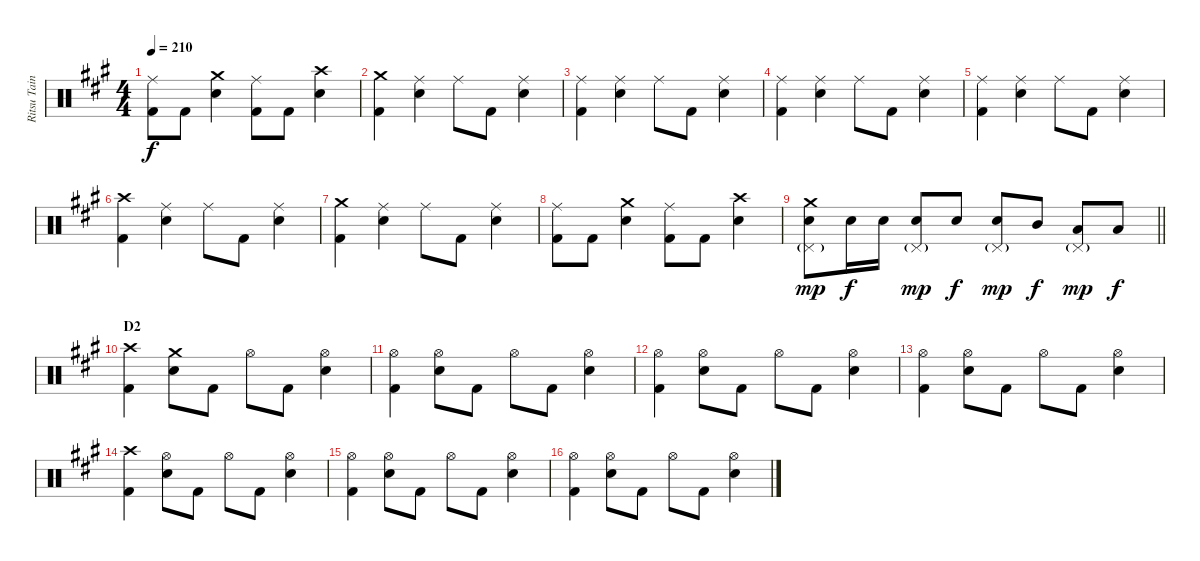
\track ("Ritsu Tainaka" "Ritsu Tain") {instrument percussion}
\staff {score}
\articulation defaults
\ts (4 4)
\tempo 210
\clef neutral
\ks a
("Ride (middle)" "Kick (hit) 2").8{dy f} "Kick (hit) 2".8 ("Crash medium (hit)" "Electric Snare (hit)").4 ("Ride (middle)" "Kick (hit) 2").8 "Kick (hit) 2".8 ("Crash high (hit)" "Electric Snare (hit)").4 |
("Crash medium (hit)" "Kick (hit) 2").4 ("Ride (middle)" "Electric Snare (hit)").4 "Ride (middle)".8 "Kick (hit) 2".8 ("Ride (middle)" "Electric Snare (hit)").4 |
("Ride (middle)" "Kick (hit) 2").4 ("Ride (middle)" "Electric Snare (hit)").4 "Ride (middle)".8 "Kick (hit) 2".8 ("Ride (middle)" "Electric Snare (hit)").4 |
("Ride (middle)" "Kick (hit) 2").4 ("Ride (middle)" "Electric Snare (hit)").4 "Ride (middle)".8 "Kick (hit) 2".8 ("Ride (middle)" "Electric Snare (hit)").4 |
("Ride (middle)" "Kick (hit) 2").4 ("Ride (middle)" "Electric Snare (hit)").4 "Ride (middle)".8 "Kick (hit) 2".8 ("Ride (middle)" "Electric Snare (hit)").4 |
("Crash high (hit)" "Kick (hit) 2").4 ("Ride (middle)" "Electric Snare (hit)").4 "Ride (middle)".8 "Kick (hit) 2".8 ("Ride (middle)" "Electric Snare (hit)").4 |
("Crash medium (hit)" "Kick (hit) 2").4 ("Ride (middle)" "Electric Snare (hit)").4 "Ride (middle)".8 "Kick (hit) 2".8 ("Ride (middle)" "Electric Snare (hit)").4 |
("Ride (middle)" "Kick (hit) 2").8 "Kick (hit) 2".8 ("Crash medium (hit)" "Electric Snare (hit)").4 ("Ride (middle)" "Kick (hit) 2").8 "Kick (hit) 2".8 ("Crash high (hit)" "Electric Snare (hit)").4 |
\barLineRight lightlight
("Crash medium (hit)" "Pedal Hi-Hat (hit)"{g} "Electric Snare (hit)").8{dy mp} "Electric Snare (hit)".16{dy f} "Electric Snare (hit)".16 ("Pedal Hi-Hat (hit)"{g} "Electric Snare (hit)").8{dy mp} "Electric Snare (hit)".8{dy f} ("Pedal Hi-Hat (hit)"{g} "Electric Snare (hit)").8{dy mp} "Mid Tom (hit)".8{dy f} ("Pedal Hi-Hat (hit)"{g} "Low Tom (hit)").8{dy mp} "Low Floor Tom (hit)".8{dy f} |
\section ("" "D2")
("Crash high (hit)" "Kick (hit) 2").4 ("Crash medium (hit)" "Electric Snare (hit)").8 "Kick (hit) 2".8 "Hi-Hat (open)".8 "Kick (hit) 2".8 ("Hi-Hat (open)" "Electric Snare (hit)").4 |
("Hi-Hat (open)" "Kick (hit) 2").4 ("Hi-Hat (open)" "Electric Snare (hit)").8 "Kick (hit) 2".8 "Hi-Hat (open)".8 "Kick (hit) 2".8 ("Hi-Hat (open)" "Electric Snare (hit)").4 |
("Hi-Hat (open)" "Kick (hit) 2").4 ("Hi-Hat (open)" "Electric Snare (hit)").8 "Kick (hit) 2".8 "Hi-Hat (open)".8 "Kick (hit) 2".8 ("Hi-Hat (open)" "Electric Snare (hit)").4 |
("Hi-Hat (open)" "Kick (hit) 2").4 ("Hi-Hat (open)" "Electric Snare (hit)").8 "Kick (hit) 2".8 "Hi-Hat (open)".8 "Kick (hit) 2".8 ("Hi-Hat (open)" "Electric Snare (hit)").4 |
("Crash high (hit)" "Kick (hit) 2").4 ("Hi-Hat (open)" "Electric Snare (hit)").8 "Kick (hit) 2".8 "Hi-Hat (open)".8 "Kick (hit) 2".8 ("Hi-Hat (open)" "Electric Snare (hit)").4 |
("Hi-Hat (open)" "Kick (hit) 2").4 ("Hi-Hat (open)" "Electric Snare (hit)").8 "Kick (hit) 2".8 "Hi-Hat (open)".8 "Kick (hit) 2".8 ("Hi-Hat (open)" "Electric Snare (hit)").4 |
("Hi-Hat (open)" "Kick (hit) 2").4 ("Hi-Hat (open)" "Electric Snare (hit)").8 "Kick (hit) 2".8 "Hi-Hat (open)".8 "Kick (hit) 2".8 ("Hi-Hat (open)" "Electric Snare (hit)").4
